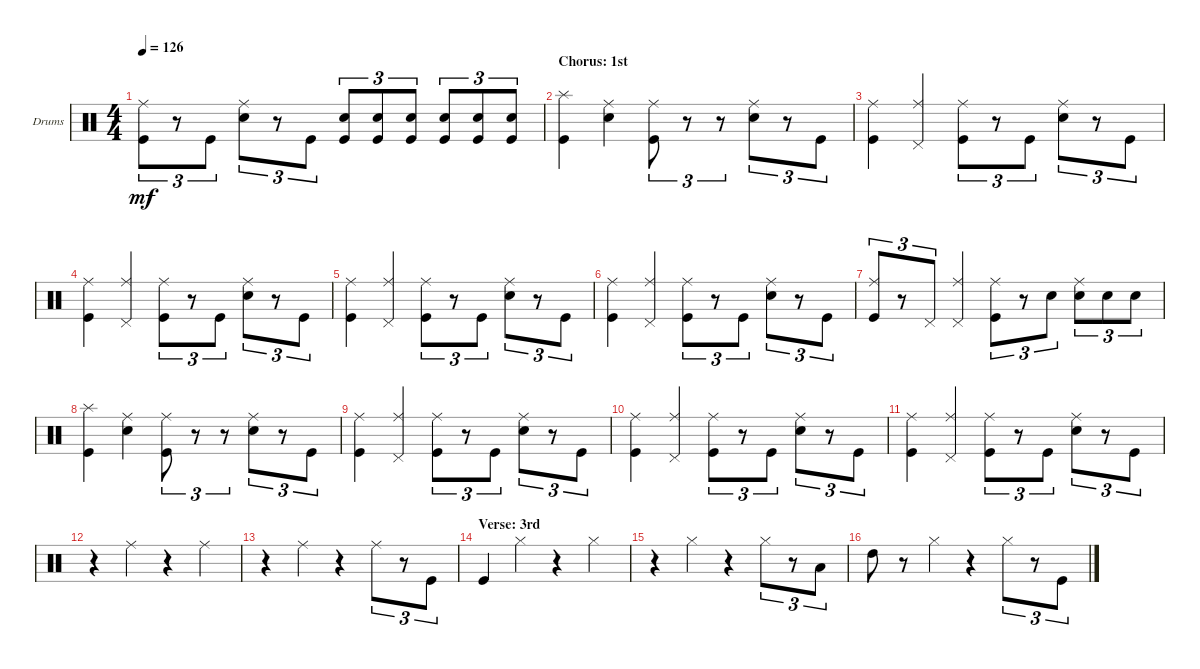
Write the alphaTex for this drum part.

\defaultSystemsLayout 4
\bracketExtendMode groupsimilarinstruments
\firstSystemTrackNameOrientation horizontal
\otherSystemsTrackNameOrientation horizontal
\track ("Drumkit" "Drums") {instrument percussion}
\staff {score}
\articulation defaults
\ts (4 4)
\tempo 126
\clef neutral
\ks c
("Ride (middle)" "Kick (hit)").8{tu (3 2) dy mf} r.8{tu (3 2)} "Kick (hit)".8{tu (3 2)} ("Ride (middle)" "Snare (hit) 2").8{tu (3 2)} r.8{tu (3 2)} "Kick (hit)".8{tu (3 2)} ("Kick (hit)" "Snare (hit) 2").8{tu (3 2)} ("Kick (hit)" "Snare (hit) 2").8{tu (3 2)} ("Kick (hit)" "Snare (hit) 2").8{tu (3 2)} ("Kick (hit)" "Snare (hit) 2").8{tu (3 2)} ("Kick (hit)" "Snare (hit) 2").8{tu (3 2)} ("Kick (hit)" "Snare (hit) 2").8{tu (3 2)} |
\section ("" "Chorus: 1st")
("Splash (hit)" "Kick (hit)").4 ("Ride (middle)" "Snare (hit) 2").4 ("Ride (middle)" "Kick (hit)").8{tu (3 2)} r.8{tu (3 2)} r.8{tu (3 2)} ("Ride (middle)" "Snare (hit) 2").8{tu (3 2)} r.8{tu (3 2)} "Kick (hit)".8{tu (3 2)} |
("Ride (middle)" "Kick (hit)").4 ("Ride (middle)" "Pedal Hi-Hat (hit)").4 ("Ride (middle)" "Kick (hit)").8{tu (3 2)} r.8{tu (3 2)} "Kick (hit)".8{tu (3 2)} ("Ride (middle)" "Snare (hit) 2").8{tu (3 2)} r.8{tu (3 2)} "Kick (hit)".8{tu (3 2)} |
("Ride (middle)" "Kick (hit)").4 ("Ride (middle)" "Pedal Hi-Hat (hit)").4 ("Ride (middle)" "Kick (hit)").8{tu (3 2)} r.8{tu (3 2)} "Kick (hit)".8{tu (3 2)} ("Ride (middle)" "Snare (hit) 2").8{tu (3 2)} r.8{tu (3 2)} "Kick (hit)".8{tu (3 2)} |
("Ride (middle)" "Kick (hit)").4 ("Ride (middle)" "Pedal Hi-Hat (hit)").4 ("Ride (middle)" "Kick (hit)").8{tu (3 2)} r.8{tu (3 2)} "Kick (hit)".8{tu (3 2)} ("Ride (middle)" "Snare (hit) 2").8{tu (3 2)} r.8{tu (3 2)} "Kick (hit)".8{tu (3 2)} |
("Ride (middle)" "Kick (hit)").4 ("Ride (middle)" "Pedal Hi-Hat (hit)").4 ("Ride (middle)" "Kick (hit)").8{tu (3 2)} r.8{tu (3 2)} "Kick (hit)".8{tu (3 2)} ("Ride (middle)" "Snare (hit) 2").8{tu (3 2)} r.8{tu (3 2)} "Kick (hit)".8{tu (3 2)} |
("Ride (middle)" "Kick (hit)").8{tu (3 2)} r.8{tu (3 2)} "Pedal Hi-Hat (hit)".8{tu (3 2)} ("Ride (middle)" "Pedal Hi-Hat (hit)").4 ("Ride (middle)" "Kick (hit)").8{tu (3 2)} r.8{tu (3 2)} "Snare (hit) 2".8{tu (3 2)} ("Ride (middle)" "Snare (hit) 2").8{tu (3 2)} "Snare (hit) 2".8{tu (3 2)} "Snare (hit) 2".8{tu (3 2)} |
("Splash (hit)" "Kick (hit)").4 ("Ride (middle)" "Snare (hit) 2").4 ("Ride (middle)" "Kick (hit)").8{tu (3 2)} r.8{tu (3 2)} r.8{tu (3 2)} ("Ride (middle)" "Snare (hit) 2").8{tu (3 2)} r.8{tu (3 2)} "Kick (hit)".8{tu (3 2)} |
("Ride (middle)" "Kick (hit)").4 ("Ride (middle)" "Pedal Hi-Hat (hit)").4 ("Ride (middle)" "Kick (hit)").8{tu (3 2)} r.8{tu (3 2)} "Kick (hit)".8{tu (3 2)} ("Ride (middle)" "Snare (hit) 2").8{tu (3 2)} r.8{tu (3 2)} "Kick (hit)".8{tu (3 2)} |
("Ride (middle)" "Kick (hit)").4 ("Ride (middle)" "Pedal Hi-Hat (hit)").4 ("Ride (middle)" "Kick (hit)").8{tu (3 2)} r.8{tu (3 2)} "Kick (hit)".8{tu (3 2)} ("Ride (middle)" "Snare (hit) 2").8{tu (3 2)} r.8{tu (3 2)} "Kick (hit)".8{tu (3 2)} |
("Ride (middle)" "Kick (hit)").4 ("Ride (middle)" "Pedal Hi-Hat (hit)").4 ("Ride (middle)" "Kick (hit)").8{tu (3 2)} r.8{tu (3 2)} "Kick (hit)".8{tu (3 2)} ("Ride (middle)" "Snare (hit) 2").8{tu (3 2)} r.8{tu (3 2)} "Kick (hit)".8{tu (3 2)} |
r.4 "Ride (middle)".4 r.4 "Ride (middle)".4 |
r.4 "Ride (middle)".4 r.4 "Ride (middle)".8{tu (3 2)} r.8{tu (3 2)} "Kick (hit)".8{tu (3 2)} |
\section ("" "Verse: 3rd")
"Kick (hit)".4 "Hi-Hat (closed)".4 r.4 "Hi-Hat (closed)".4 |
r.4 "Hi-Hat (closed)".4 r.4 "Hi-Hat (closed)".8{tu (3 2)} r.8{tu (3 2)} "Low Tom (hit)".8{tu (3 2)} |
"High Tom (hit)".8 r.8 "Hi-Hat (closed)".4 r.4 "Hi-Hat (closed)".8{tu (3 2)} r.8{tu (3 2)} "Kick (hit)".8{tu (3 2)}
